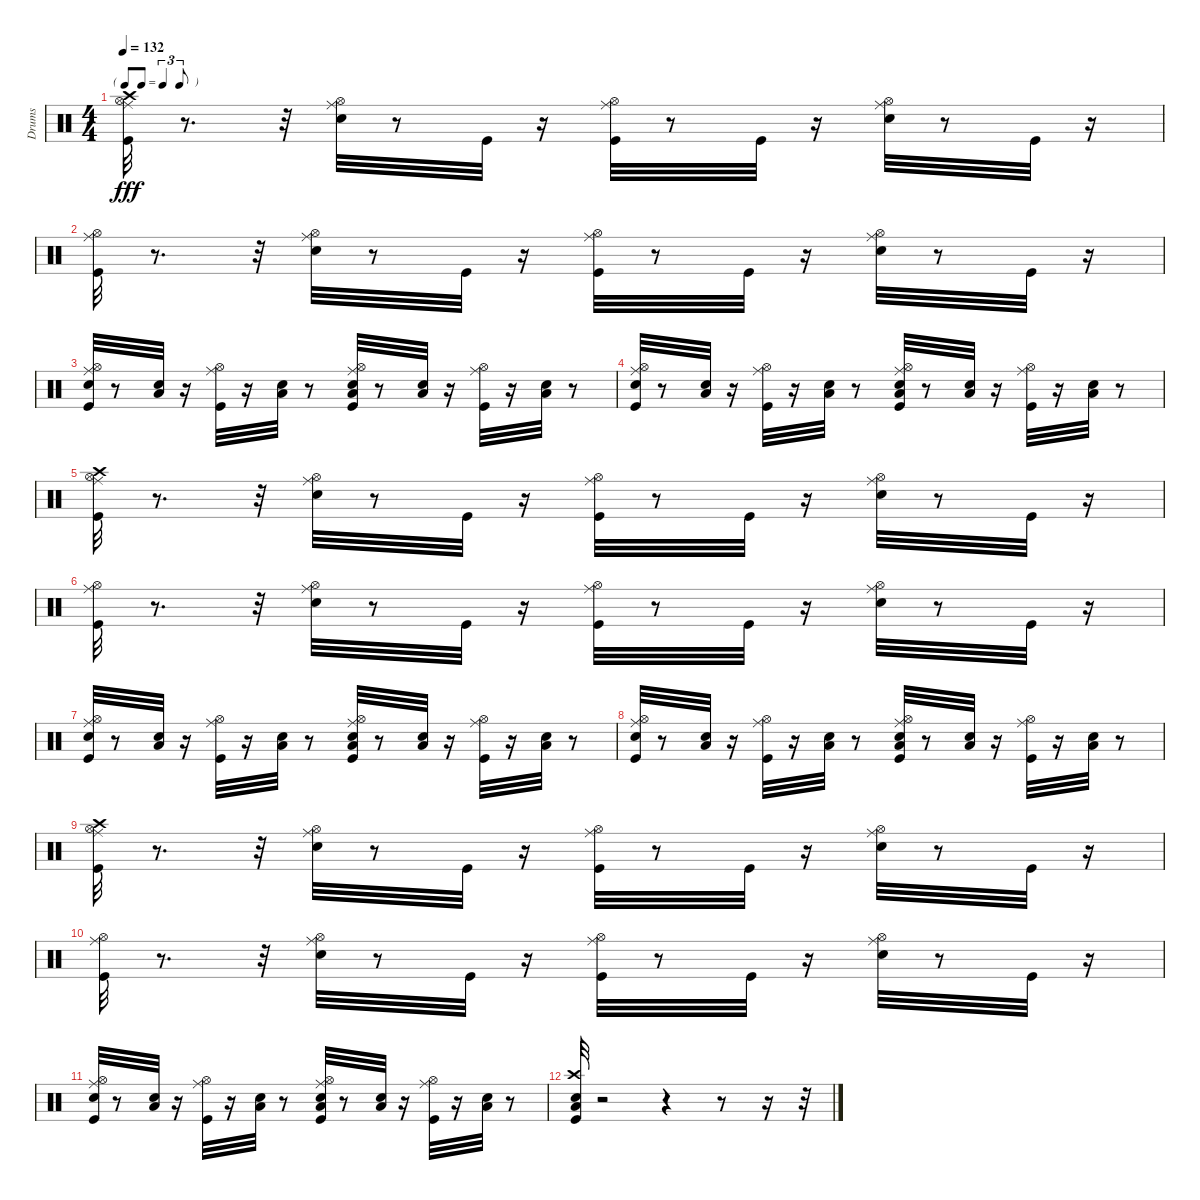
\track ("Drums" "Drums") {instrument percussion}
\staff {score}
\articulation defaults
\ts (4 4)
\tf triplet8th
\tempo 132
\clef neutral
\ks c
("Kick (hit)" "Crash high (hit)" "Ride (middle)" "Hi-Hat (open)").32{dy fff} r.8{d} r.32 ("Snare (hit) 2" "Ride (middle)" "Hi-Hat (open)").32 r.8 "Kick (hit)".32 r.16 ("Kick (hit)" "Ride (middle)" "Hi-Hat (open)").32 r.8 "Kick (hit)".32 r.16 ("Snare (hit) 2" "Ride (middle)" "Hi-Hat (open)").32 r.8 "Kick (hit)".32 r.16 |
("Kick (hit)" "Ride (middle)" "Hi-Hat (open)").32 r.8{d} r.32 ("Snare (hit) 2" "Ride (middle)" "Hi-Hat (open)").32 r.8 "Kick (hit)".32 r.16 ("Kick (hit)" "Ride (middle)" "Hi-Hat (open)").32 r.8 "Kick (hit)".32 r.16 ("Snare (hit) 2" "Ride (middle)" "Hi-Hat (open)").32 r.8 "Kick (hit)".32 r.16 |
("Snare (hit) 2" "Kick (hit)" "Ride (middle)" "Hi-Hat (open)").32 r.8 ("Snare (hit) 2" "Low Tom (hit)").32 r.16 ("Kick (hit)" "Ride (middle)" "Hi-Hat (open)").32 r.16 ("Snare (hit) 2" "Low Tom (hit)").32 r.8 ("Snare (hit) 2" "Low Tom (hit)" "Kick (hit)" "Ride (middle)" "Hi-Hat (open)").32 r.8 ("Snare (hit) 2" "Low Tom (hit)").32 r.16 ("Kick (hit)" "Ride (middle)" "Hi-Hat (open)").32 r.16 ("Snare (hit) 2" "Low Tom (hit)").32 r.8 |
("Snare (hit) 2" "Kick (hit)" "Ride (middle)" "Hi-Hat (open)").32 r.8 ("Snare (hit) 2" "Low Tom (hit)").32 r.16 ("Kick (hit)" "Ride (middle)" "Hi-Hat (open)").32 r.16 ("Snare (hit) 2" "Low Tom (hit)").32 r.8 ("Snare (hit) 2" "Low Tom (hit)" "Kick (hit)" "Ride (middle)" "Hi-Hat (open)").32 r.8 ("Snare (hit) 2" "Low Tom (hit)").32 r.16 ("Kick (hit)" "Ride (middle)" "Hi-Hat (open)").32 r.16 ("Snare (hit) 2" "Low Tom (hit)").32 r.8 |
("Kick (hit)" "Crash high (hit)" "Ride (middle)" "Hi-Hat (open)").32 r.8{d} r.32 ("Snare (hit) 2" "Ride (middle)" "Hi-Hat (open)").32 r.8 "Kick (hit)".32 r.16 ("Kick (hit)" "Ride (middle)" "Hi-Hat (open)").32 r.8 "Kick (hit)".32 r.16 ("Snare (hit) 2" "Ride (middle)" "Hi-Hat (open)").32 r.8 "Kick (hit)".32 r.16 |
("Kick (hit)" "Ride (middle)" "Hi-Hat (open)").32 r.8{d} r.32 ("Snare (hit) 2" "Ride (middle)" "Hi-Hat (open)").32 r.8 "Kick (hit)".32 r.16 ("Kick (hit)" "Ride (middle)" "Hi-Hat (open)").32 r.8 "Kick (hit)".32 r.16 ("Snare (hit) 2" "Ride (middle)" "Hi-Hat (open)").32 r.8 "Kick (hit)".32 r.16 |
("Snare (hit) 2" "Kick (hit)" "Ride (middle)" "Hi-Hat (open)").32 r.8 ("Snare (hit) 2" "Low Tom (hit)").32 r.16 ("Kick (hit)" "Ride (middle)" "Hi-Hat (open)").32 r.16 ("Snare (hit) 2" "Low Tom (hit)").32 r.8 ("Snare (hit) 2" "Low Tom (hit)" "Kick (hit)" "Ride (middle)" "Hi-Hat (open)").32 r.8 ("Snare (hit) 2" "Low Tom (hit)").32 r.16 ("Kick (hit)" "Ride (middle)" "Hi-Hat (open)").32 r.16 ("Snare (hit) 2" "Low Tom (hit)").32 r.8 |
("Snare (hit) 2" "Kick (hit)" "Ride (middle)" "Hi-Hat (open)").32 r.8 ("Snare (hit) 2" "Low Tom (hit)").32 r.16 ("Kick (hit)" "Ride (middle)" "Hi-Hat (open)").32 r.16 ("Snare (hit) 2" "Low Tom (hit)").32 r.8 ("Snare (hit) 2" "Low Tom (hit)" "Kick (hit)" "Ride (middle)" "Hi-Hat (open)").32 r.8 ("Snare (hit) 2" "Low Tom (hit)").32 r.16 ("Kick (hit)" "Ride (middle)" "Hi-Hat (open)").32 r.16 ("Snare (hit) 2" "Low Tom (hit)").32 r.8 |
("Kick (hit)" "Crash high (hit)" "Ride (middle)" "Hi-Hat (open)").32 r.8{d} r.32 ("Snare (hit) 2" "Ride (middle)" "Hi-Hat (open)").32 r.8 "Kick (hit)".32 r.16 ("Kick (hit)" "Ride (middle)" "Hi-Hat (open)").32 r.8 "Kick (hit)".32 r.16 ("Snare (hit) 2" "Ride (middle)" "Hi-Hat (open)").32 r.8 "Kick (hit)".32 r.16 |
("Kick (hit)" "Ride (middle)" "Hi-Hat (open)").32 r.8{d} r.32 ("Snare (hit) 2" "Ride (middle)" "Hi-Hat (open)").32 r.8 "Kick (hit)".32 r.16 ("Kick (hit)" "Ride (middle)" "Hi-Hat (open)").32 r.8 "Kick (hit)".32 r.16 ("Snare (hit) 2" "Ride (middle)" "Hi-Hat (open)").32 r.8 "Kick (hit)".32 r.16 |
("Snare (hit) 2" "Kick (hit)" "Ride (middle)" "Hi-Hat (open)").32 r.8 ("Snare (hit) 2" "Low Tom (hit)").32 r.16 ("Kick (hit)" "Ride (middle)" "Hi-Hat (open)").32 r.16 ("Snare (hit) 2" "Low Tom (hit)").32 r.8 ("Snare (hit) 2" "Low Tom (hit)" "Kick (hit)" "Ride (middle)" "Hi-Hat (open)").32 r.8 ("Snare (hit) 2" "Low Tom (hit)").32 r.16 ("Kick (hit)" "Ride (middle)" "Hi-Hat (open)").32 r.16 ("Snare (hit) 2" "Low Tom (hit)").32 r.8 |
("Snare (hit) 2" "Kick (hit)" "Low Floor Tom (hit)" "Crash high (hit)").32 r.2 r.4 r.8 r.16 r.32
